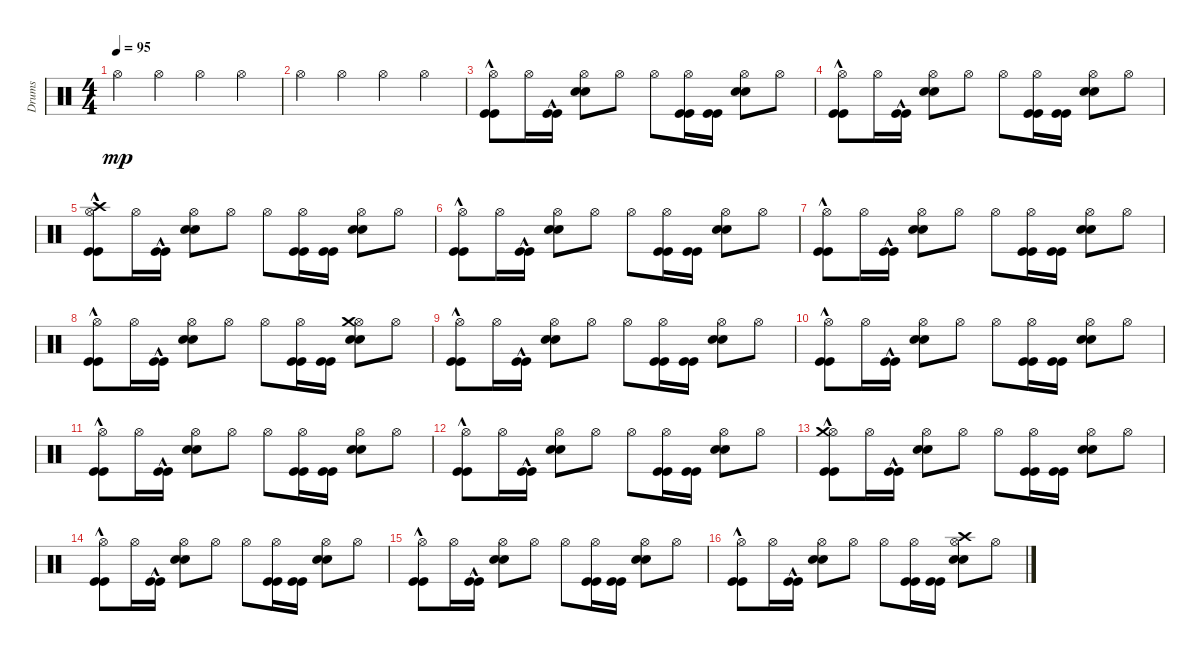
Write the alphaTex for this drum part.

\track ("Drums" "Drums") {instrument percussion}
\staff {score}
\articulation defaults
\ts (4 4)
\tempo 95
\clef neutral
\ks c "Hi-Hat (open)".4{dy mp} "Hi-Hat (open)".4 "Hi-Hat (open)".4 "Hi-Hat (open)".4
|
"Hi-Hat (open)".4 "Hi-Hat (open)".4 "Hi-Hat (open)".4 "Hi-Hat (open)".4 |
("Kick (hit)"{hac} "Kick (hit)"{hac} "Hi-Hat (open)").8 "Hi-Hat (open)".16 ("Kick (hit)"{hac} "Kick (hit)"{hac}).16 ("Snare (hit) 2" "Snare (hit) 2" "Hi-Hat (open)").8 "Hi-Hat (open)".8 "Hi-Hat (open)".8 ("Kick (hit)" "Kick (hit)" "Hi-Hat (open)").16 ("Kick (hit)" "Kick (hit)").16 ("Snare (hit) 2" "Snare (hit) 2" "Hi-Hat (open)").8 "Hi-Hat (open)".8 |
("Kick (hit)"{hac} "Kick (hit)"{hac} "Hi-Hat (open)").8 "Hi-Hat (open)".16 ("Kick (hit)"{hac} "Kick (hit)"{hac}).16 ("Snare (hit) 2" "Snare (hit) 2" "Hi-Hat (open)").8 "Hi-Hat (open)".8 "Hi-Hat (open)".8 ("Kick (hit)" "Kick (hit)" "Hi-Hat (open)").16 ("Kick (hit)" "Kick (hit)").16 ("Snare (hit) 2" "Snare (hit) 2" "Hi-Hat (open)").8 "Hi-Hat (open)".8 |
("Kick (hit)"{hac} "Kick (hit)"{hac} "Hi-Hat (open)" "Crash high (hit)").8 "Hi-Hat (open)".16 ("Kick (hit)"{hac} "Kick (hit)"{hac}).16 ("Snare (hit) 2" "Snare (hit) 2" "Hi-Hat (open)").8 "Hi-Hat (open)".8 "Hi-Hat (open)".8 ("Kick (hit)" "Kick (hit)" "Hi-Hat (open)").16 ("Kick (hit)" "Kick (hit)").16 ("Snare (hit) 2" "Snare (hit) 2" "Hi-Hat (open)").8 "Hi-Hat (open)".8 |
("Kick (hit)"{hac} "Kick (hit)"{hac} "Hi-Hat (open)").8 "Hi-Hat (open)".16 ("Kick (hit)"{hac} "Kick (hit)"{hac}).16 ("Snare (hit) 2" "Snare (hit) 2" "Hi-Hat (open)").8 "Hi-Hat (open)".8 "Hi-Hat (open)".8 ("Kick (hit)" "Kick (hit)" "Hi-Hat (open)").16 ("Kick (hit)" "Kick (hit)").16 ("Snare (hit) 2" "Snare (hit) 2" "Hi-Hat (open)").8 "Hi-Hat (open)".8 |
("Kick (hit)"{hac} "Kick (hit)"{hac} "Hi-Hat (open)").8 "Hi-Hat (open)".16 ("Kick (hit)"{hac} "Kick (hit)"{hac}).16 ("Snare (hit) 2" "Snare (hit) 2" "Hi-Hat (open)").8 "Hi-Hat (open)".8 "Hi-Hat (open)".8 ("Kick (hit)" "Kick (hit)" "Hi-Hat (open)").16 ("Kick (hit)" "Kick (hit)").16 ("Snare (hit) 2" "Snare (hit) 2" "Hi-Hat (open)").8 "Hi-Hat (open)".8 |
("Kick (hit)"{hac} "Kick (hit)"{hac} "Hi-Hat (open)").8 "Hi-Hat (open)".16 ("Kick (hit)"{hac} "Kick (hit)"{hac}).16 ("Snare (hit) 2" "Snare (hit) 2" "Hi-Hat (open)").8 "Hi-Hat (open)".8 "Hi-Hat (open)".8 ("Kick (hit)" "Kick (hit)" "Hi-Hat (open)").16 ("Kick (hit)" "Kick (hit)").16 ("Snare (hit) 2" "Snare (hit) 2" "Hi-Hat (open)" "Crash medium (hit)").8 "Hi-Hat (open)".8 |
("Kick (hit)"{hac} "Kick (hit)"{hac} "Hi-Hat (open)").8 "Hi-Hat (open)".16 ("Kick (hit)"{hac} "Kick (hit)"{hac}).16 ("Snare (hit) 2" "Snare (hit) 2" "Hi-Hat (open)").8 "Hi-Hat (open)".8 "Hi-Hat (open)".8 ("Kick (hit)" "Kick (hit)" "Hi-Hat (open)").16 ("Kick (hit)" "Kick (hit)").16 ("Snare (hit) 2" "Snare (hit) 2" "Hi-Hat (open)").8 "Hi-Hat (open)".8 |
("Kick (hit)"{hac} "Kick (hit)"{hac} "Hi-Hat (open)").8 "Hi-Hat (open)".16 ("Kick (hit)"{hac} "Kick (hit)"{hac}).16 ("Snare (hit) 2" "Snare (hit) 2" "Hi-Hat (open)").8 "Hi-Hat (open)".8 "Hi-Hat (open)".8 ("Kick (hit)" "Kick (hit)" "Hi-Hat (open)").16 ("Kick (hit)" "Kick (hit)").16 ("Snare (hit) 2" "Snare (hit) 2" "Hi-Hat (open)").8 "Hi-Hat (open)".8 |
("Kick (hit)"{hac} "Kick (hit)"{hac} "Hi-Hat (open)").8 "Hi-Hat (open)".16 ("Kick (hit)"{hac} "Kick (hit)"{hac}).16 ("Snare (hit) 2" "Snare (hit) 2" "Hi-Hat (open)").8 "Hi-Hat (open)".8 "Hi-Hat (open)".8 ("Kick (hit)" "Kick (hit)" "Hi-Hat (open)").16 ("Kick (hit)" "Kick (hit)").16 ("Snare (hit) 2" "Snare (hit) 2" "Hi-Hat (open)").8 "Hi-Hat (open)".8 |
("Kick (hit)"{hac} "Kick (hit)"{hac} "Hi-Hat (open)").8 "Hi-Hat (open)".16 ("Kick (hit)"{hac} "Kick (hit)"{hac}).16 ("Snare (hit) 2" "Snare (hit) 2" "Hi-Hat (open)").8 "Hi-Hat (open)".8 "Hi-Hat (open)".8 ("Kick (hit)" "Kick (hit)" "Hi-Hat (open)").16 ("Kick (hit)" "Kick (hit)").16 ("Snare (hit) 2" "Snare (hit) 2" "Hi-Hat (open)").8 "Hi-Hat (open)".8 |
("Kick (hit)"{hac} "Kick (hit)"{hac} "Hi-Hat (open)" "Crash medium (hit)").8 "Hi-Hat (open)".16 ("Kick (hit)"{hac} "Kick (hit)"{hac}).16 ("Snare (hit) 2" "Snare (hit) 2" "Hi-Hat (open)").8 "Hi-Hat (open)".8 "Hi-Hat (open)".8 ("Kick (hit)" "Kick (hit)" "Hi-Hat (open)").16 ("Kick (hit)" "Kick (hit)").16 ("Snare (hit) 2" "Snare (hit) 2" "Hi-Hat (open)").8 "Hi-Hat (open)".8 |
("Kick (hit)"{hac} "Kick (hit)"{hac} "Hi-Hat (open)").8 "Hi-Hat (open)".16 ("Kick (hit)"{hac} "Kick (hit)"{hac}).16 ("Snare (hit) 2" "Snare (hit) 2" "Hi-Hat (open)").8 "Hi-Hat (open)".8 "Hi-Hat (open)".8 ("Kick (hit)" "Kick (hit)" "Hi-Hat (open)").16 ("Kick (hit)" "Kick (hit)").16 ("Snare (hit) 2" "Snare (hit) 2" "Hi-Hat (open)").8 "Hi-Hat (open)".8 |
("Kick (hit)"{hac} "Kick (hit)"{hac} "Hi-Hat (open)").8 "Hi-Hat (open)".16 ("Kick (hit)"{hac} "Kick (hit)"{hac}).16 ("Snare (hit) 2" "Snare (hit) 2" "Hi-Hat (open)").8 "Hi-Hat (open)".8 "Hi-Hat (open)".8 ("Kick (hit)" "Kick (hit)" "Hi-Hat (open)").16 ("Kick (hit)" "Kick (hit)").16 ("Snare (hit) 2" "Snare (hit) 2" "Hi-Hat (open)").8 "Hi-Hat (open)".8 |
("Kick (hit)"{hac} "Kick (hit)"{hac} "Hi-Hat (open)").8 "Hi-Hat (open)".16 ("Kick (hit)"{hac} "Kick (hit)"{hac}).16 ("Snare (hit) 2" "Snare (hit) 2" "Hi-Hat (open)").8 "Hi-Hat (open)".8 "Hi-Hat (open)".8 ("Kick (hit)" "Kick (hit)" "Hi-Hat (open)").16 ("Kick (hit)" "Kick (hit)").16 ("Snare (hit) 2" "Snare (hit) 2" "Hi-Hat (open)" "Crash high (hit)").8 "Hi-Hat (open)".8
